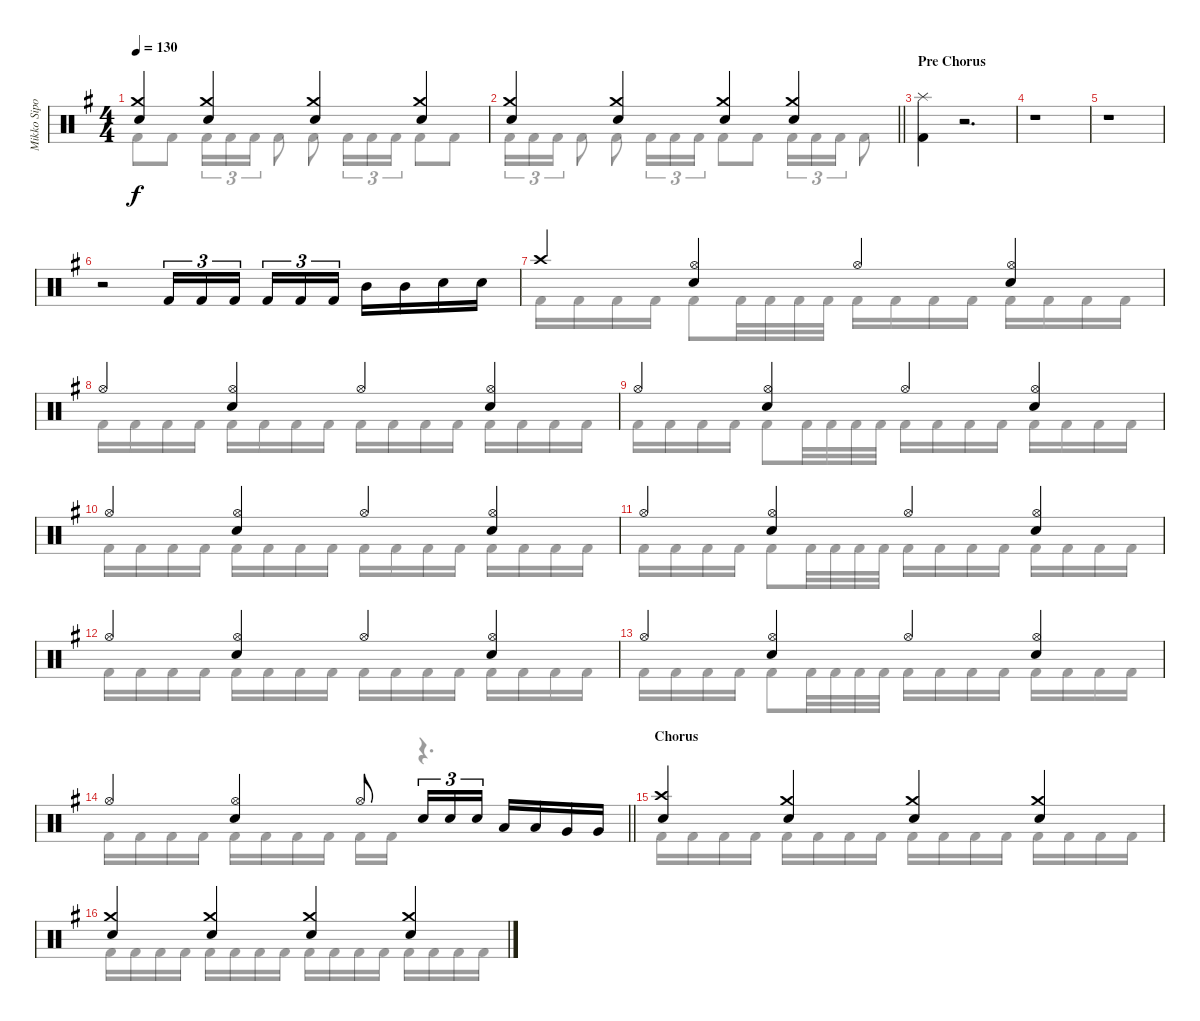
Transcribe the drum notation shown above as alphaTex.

\track ("Mikko Sipola (drums)" "Mikko Sipo") {instrument percussion}
\staff {score}
\articulation defaults
\voice
\ts (4 4)
\tempo 130
\clef neutral
\ks eminor
("Crash medium (hit)" "Electric Snare (hit)").4{dy f} ("Crash medium (hit)" "Electric Snare (hit)").4 ("Crash medium (hit)" "Electric Snare (hit)").4 ("Crash medium (hit)" "Electric Snare (hit)").4 |
\barLineRight lightlight
("Crash medium (hit)" "Electric Snare (hit)").4 ("Crash medium (hit)" "Electric Snare (hit)").4 ("Crash medium (hit)" "Electric Snare (hit)").4 ("Crash medium (hit)" "Electric Snare (hit)").4 |
\section ("" "Pre Chorus")
("Splash (hit)" "Kick (hit) 2").4 r.2{d} |
r.1 |
r.1 |
r.2 "Kick (hit) 2".16{tu (3 2)} "Kick (hit) 2".16{tu (3 2)} "Kick (hit) 2".16{tu (3 2) beam splitsecondary} "Kick (hit) 2".16{tu (3 2)} "Kick (hit) 2".16{tu (3 2)} "Kick (hit) 2".16{tu (3 2)} "Mid Tom (hit)".16 "Mid Tom (hit)".16 "Electric Snare (hit)".16 "Electric Snare (hit)".16 |
"Crash high (hit)".4 ("Hi-Hat (open)" "Electric Snare (hit)").4 "Hi-Hat (open)".4 ("Hi-Hat (open)" "Electric Snare (hit)").4 |
"Hi-Hat (open)".4 ("Hi-Hat (open)" "Electric Snare (hit)").4 "Hi-Hat (open)".4 ("Hi-Hat (open)" "Electric Snare (hit)").4 |
"Hi-Hat (open)".4 ("Hi-Hat (open)" "Electric Snare (hit)").4 "Hi-Hat (open)".4 ("Hi-Hat (open)" "Electric Snare (hit)").4 |
"Hi-Hat (open)".4 ("Hi-Hat (open)" "Electric Snare (hit)").4 "Hi-Hat (open)".4 ("Hi-Hat (open)" "Electric Snare (hit)").4 |
"Hi-Hat (open)".4 ("Hi-Hat (open)" "Electric Snare (hit)").4 "Hi-Hat (open)".4 ("Hi-Hat (open)" "Electric Snare (hit)").4 |
"Hi-Hat (open)".4 ("Hi-Hat (open)" "Electric Snare (hit)").4 "Hi-Hat (open)".4 ("Hi-Hat (open)" "Electric Snare (hit)").4 |
"Hi-Hat (open)".4 ("Hi-Hat (open)" "Electric Snare (hit)").4 "Hi-Hat (open)".4 ("Hi-Hat (open)" "Electric Snare (hit)").4 |
\barLineRight lightlight "Hi-Hat (open)".4
("Hi-Hat (open)" "Electric Snare (hit)").4 "Hi-Hat (open)".8 "Electric Snare (hit)".16{tu (3 2)} "Electric Snare (hit)".16{tu (3 2)} "Electric Snare (hit)".16{tu (3 2)} "Low Tom (hit)".16 "Low Tom (hit)".16 "Very Low Tom (hit)".16 "Very Low Tom (hit)".16 |
\section ("" "Chorus")
("Crash high (hit)" "Electric Snare (hit)").4 ("Crash medium (hit)" "Electric Snare (hit)").4 ("Crash medium (hit)" "Electric Snare (hit)").4 ("Crash medium (hit)" "Electric Snare (hit)").4 |
("Crash medium (hit)" "Electric Snare (hit)").4 ("Crash medium (hit)" "Electric Snare (hit)").4 ("Crash medium (hit)" "Electric Snare (hit)").4 ("Crash medium (hit)" "Electric Snare (hit)").4
\voice
\clef neutral
\ottava regular
\simile none
\ks eminor "Kick (hit) 2".8{dy f} "Kick (hit) 2".8 "Kick (hit) 2".16{tu (3 2)} "Kick (hit) 2".16{tu (3 2)} "Kick (hit) 2".16{tu (3 2)} "Kick (hit) 2".8 "Kick (hit) 2".8 "Kick (hit) 2".16{tu (3 2)} "Kick (hit) 2".16{tu (3 2)} "Kick (hit) 2".16{tu (3 2)} "Kick (hit) 2".8 "Kick (hit) 2".8
|
\barLineRight lightlight "Kick (hit) 2".16{tu (3 2)} "Kick (hit) 2".16{tu (3 2)} "Kick (hit) 2".16{tu (3 2)} "Kick (hit) 2".8 "Kick (hit) 2".8 "Kick (hit) 2".16{tu (3 2)} "Kick (hit) 2".16{tu (3 2)} "Kick (hit) 2".16{tu (3 2)} "Kick (hit) 2".8 "Kick (hit) 2".8 "Kick (hit) 2".16{tu (3 2)} "Kick (hit) 2".16{tu (3 2)} "Kick (hit) 2".16{tu (3 2)} "Kick (hit) 2".8
|
|
|
|
|
"Kick (hit) 2".16 "Kick (hit) 2".16 "Kick (hit) 2".16 "Kick (hit) 2".16 "Kick (hit) 2".8 "Kick (hit) 2".32 "Kick (hit) 2".32 "Kick (hit) 2".32 "Kick (hit) 2".32 "Kick (hit) 2".16 "Kick (hit) 2".16 "Kick (hit) 2".16 "Kick (hit) 2".16 "Kick (hit) 2".16 "Kick (hit) 2".16 "Kick (hit) 2".16 "Kick (hit) 2".16 |
"Kick (hit) 2".16 "Kick (hit) 2".16 "Kick (hit) 2".16 "Kick (hit) 2".16 "Kick (hit) 2".16 "Kick (hit) 2".16 "Kick (hit) 2".16 "Kick (hit) 2".16 "Kick (hit) 2".16 "Kick (hit) 2".16 "Kick (hit) 2".16 "Kick (hit) 2".16 "Kick (hit) 2".16 "Kick (hit) 2".16 "Kick (hit) 2".16 "Kick (hit) 2".16 |
"Kick (hit) 2".16 "Kick (hit) 2".16 "Kick (hit) 2".16 "Kick (hit) 2".16 "Kick (hit) 2".8 "Kick (hit) 2".32 "Kick (hit) 2".32 "Kick (hit) 2".32 "Kick (hit) 2".32 "Kick (hit) 2".16 "Kick (hit) 2".16 "Kick (hit) 2".16 "Kick (hit) 2".16 "Kick (hit) 2".16 "Kick (hit) 2".16 "Kick (hit) 2".16 "Kick (hit) 2".16 |
"Kick (hit) 2".16 "Kick (hit) 2".16 "Kick (hit) 2".16 "Kick (hit) 2".16 "Kick (hit) 2".16 "Kick (hit) 2".16 "Kick (hit) 2".16 "Kick (hit) 2".16 "Kick (hit) 2".16 "Kick (hit) 2".16 "Kick (hit) 2".16 "Kick (hit) 2".16 "Kick (hit) 2".16 "Kick (hit) 2".16 "Kick (hit) 2".16 "Kick (hit) 2".16 |
"Kick (hit) 2".16 "Kick (hit) 2".16 "Kick (hit) 2".16 "Kick (hit) 2".16 "Kick (hit) 2".8 "Kick (hit) 2".32 "Kick (hit) 2".32 "Kick (hit) 2".32 "Kick (hit) 2".32 "Kick (hit) 2".16 "Kick (hit) 2".16 "Kick (hit) 2".16 "Kick (hit) 2".16 "Kick (hit) 2".16 "Kick (hit) 2".16 "Kick (hit) 2".16 "Kick (hit) 2".16 |
"Kick (hit) 2".16 "Kick (hit) 2".16 "Kick (hit) 2".16 "Kick (hit) 2".16 "Kick (hit) 2".16 "Kick (hit) 2".16 "Kick (hit) 2".16 "Kick (hit) 2".16 "Kick (hit) 2".16 "Kick (hit) 2".16 "Kick (hit) 2".16 "Kick (hit) 2".16 "Kick (hit) 2".16 "Kick (hit) 2".16 "Kick (hit) 2".16 "Kick (hit) 2".16 |
"Kick (hit) 2".16 "Kick (hit) 2".16 "Kick (hit) 2".16 "Kick (hit) 2".16 "Kick (hit) 2".8 "Kick (hit) 2".32 "Kick (hit) 2".32 "Kick (hit) 2".32 "Kick (hit) 2".32 "Kick (hit) 2".16 "Kick (hit) 2".16 "Kick (hit) 2".16 "Kick (hit) 2".16 "Kick (hit) 2".16 "Kick (hit) 2".16 "Kick (hit) 2".16 "Kick (hit) 2".16 |
\barLineRight lightlight "Kick (hit) 2".16 "Kick (hit) 2".16 "Kick (hit) 2".16 "Kick (hit) 2".16 "Kick (hit) 2".16 "Kick (hit) 2".16 "Kick (hit) 2".16 "Kick (hit) 2".16 "Kick (hit) 2".16 "Kick (hit) 2".16
r.4{d} |
"Kick (hit) 2".16 "Kick (hit) 2".16 "Kick (hit) 2".16 "Kick (hit) 2".16 "Kick (hit) 2".16 "Kick (hit) 2".16 "Kick (hit) 2".16 "Kick (hit) 2".16 "Kick (hit) 2".16 "Kick (hit) 2".16 "Kick (hit) 2".16 "Kick (hit) 2".16 "Kick (hit) 2".16 "Kick (hit) 2".16 "Kick (hit) 2".16 "Kick (hit) 2".16 |
"Kick (hit) 2".16 "Kick (hit) 2".16 "Kick (hit) 2".16 "Kick (hit) 2".16 "Kick (hit) 2".16 "Kick (hit) 2".16 "Kick (hit) 2".16 "Kick (hit) 2".16 "Kick (hit) 2".16 "Kick (hit) 2".16 "Kick (hit) 2".16 "Kick (hit) 2".16 "Kick (hit) 2".16 "Kick (hit) 2".16 "Kick (hit) 2".16 "Kick (hit) 2".16
